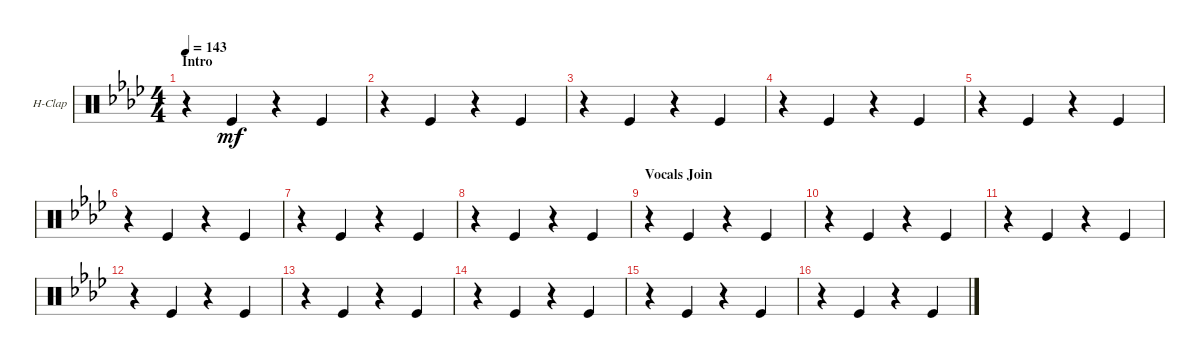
\defaultSystemsLayout 4
\bracketExtendMode groupsimilarinstruments
\firstSystemTrackNameOrientation horizontal
\otherSystemsTrackNameOrientation horizontal
\track ("Hand Clap" "H-Clap") {instrument percussion}
\staff {score}
\articulation defaults
\ts (4 4)
\section ("" "Intro")
\tempo 143
\clef neutral
\ks fminor
r.4{dy mf} "Kick (hit)".4 r.4 "Kick (hit)".4 |
r.4 "Kick (hit)".4 r.4 "Kick (hit)".4 |
r.4 "Kick (hit)".4 r.4 "Kick (hit)".4 |
r.4 "Kick (hit)".4 r.4 "Kick (hit)".4 |
r.4 "Kick (hit)".4 r.4 "Kick (hit)".4 |
r.4 "Kick (hit)".4 r.4 "Kick (hit)".4 |
r.4 "Kick (hit)".4 r.4 "Kick (hit)".4 |
r.4 "Kick (hit)".4 r.4 "Kick (hit)".4 |
\section ("" "Vocals Join")
r.4 "Kick (hit)".4 r.4 "Kick (hit)".4 |
r.4 "Kick (hit)".4 r.4 "Kick (hit)".4 |
r.4 "Kick (hit)".4 r.4 "Kick (hit)".4 |
r.4 "Kick (hit)".4 r.4 "Kick (hit)".4 |
r.4 "Kick (hit)".4 r.4 "Kick (hit)".4 |
r.4 "Kick (hit)".4 r.4 "Kick (hit)".4 |
r.4 "Kick (hit)".4 r.4 "Kick (hit)".4 |
r.4 "Kick (hit)".4 r.4 "Kick (hit)".4
